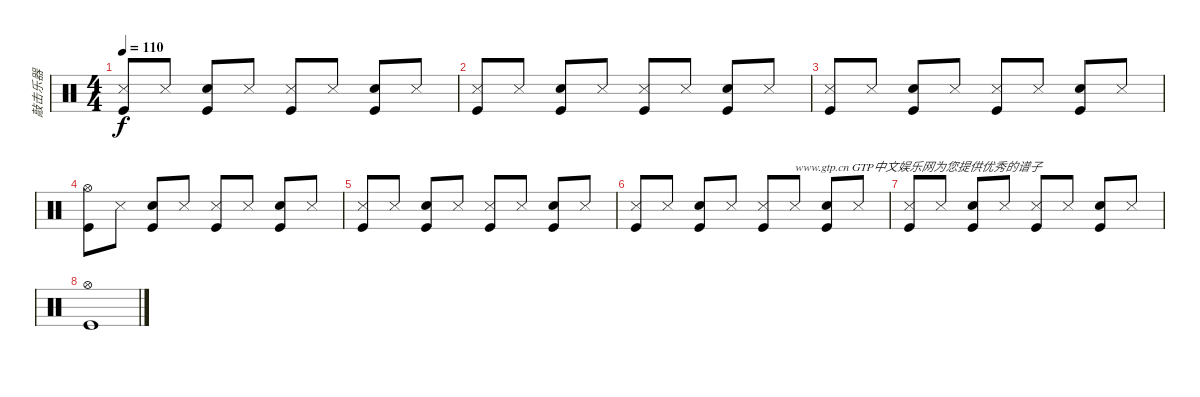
\track ("敲击乐器" "敲击乐器") {instrument percussion}
\staff {score}
\articulation defaults
\ts (4 4)
\tempo 110
\clef neutral
\ks c
("Snare (side stick) 3" "Kick (hit)").8{dy f} "Snare (side stick) 3".8 ("Snare (hit) 2" "Kick (hit)").8 "Snare (side stick) 3".8 ("Snare (side stick) 3" "Kick (hit)").8 "Snare (side stick) 3".8 ("Snare (hit) 2" "Kick (hit)").8 "Snare (side stick) 3".8 |
("Snare (side stick) 3" "Kick (hit)").8 "Snare (side stick) 3".8 ("Snare (hit) 2" "Kick (hit)").8 "Snare (side stick) 3".8 ("Snare (side stick) 3" "Kick (hit)").8 "Snare (side stick) 3".8 ("Snare (hit) 2" "Kick (hit)").8 "Snare (side stick) 3".8 |
("Snare (side stick) 3" "Kick (hit)").8 "Snare (side stick) 3".8 ("Snare (hit) 2" "Kick (hit)").8 "Snare (side stick) 3".8 ("Snare (side stick) 3" "Kick (hit)").8 "Snare (side stick) 3".8 ("Snare (hit) 2" "Kick (hit)").8 "Snare (side stick) 3".8 |
("Hi-Hat (open)" "Kick (hit)").8 "Snare (side stick) 3".8 ("Snare (hit) 2" "Kick (hit)").8 "Snare (side stick) 3".8 ("Snare (side stick) 3" "Kick (hit)").8 "Snare (side stick) 3".8 ("Snare (hit) 2" "Kick (hit)").8 "Snare (side stick) 3".8 |
("Snare (side stick) 3" "Kick (hit)").8 "Snare (side stick) 3".8 ("Snare (hit) 2" "Kick (hit)").8 "Snare (side stick) 3".8 ("Snare (side stick) 3" "Kick (hit)").8 "Snare (side stick) 3".8 ("Snare (hit) 2" "Kick (hit)").8 "Snare (side stick) 3".8 |
("Snare (side stick) 3" "Kick (hit)").8 "Snare (side stick) 3".8 ("Snare (hit) 2" "Kick (hit)").8 "Snare (side stick) 3".8 ("Snare (side stick) 3" "Kick (hit)").8 "Snare (side stick) 3".8{txt "www.gtp.cn GTP中文娱乐网为您提供优秀的谱子"} ("Snare (hit) 2" "Kick (hit)").8 "Snare (side stick) 3".8 |
("Snare (side stick) 3" "Kick (hit)").8 "Snare (side stick) 3".8 ("Snare (hit) 2" "Kick (hit)").8 "Snare (side stick) 3".8 ("Snare (side stick) 3" "Kick (hit)").8 "Snare (side stick) 3".8 ("Snare (hit) 2" "Kick (hit)").8 "Snare (side stick) 3".8 |
("Hi-Hat (open)" "Kick (hit)").1
